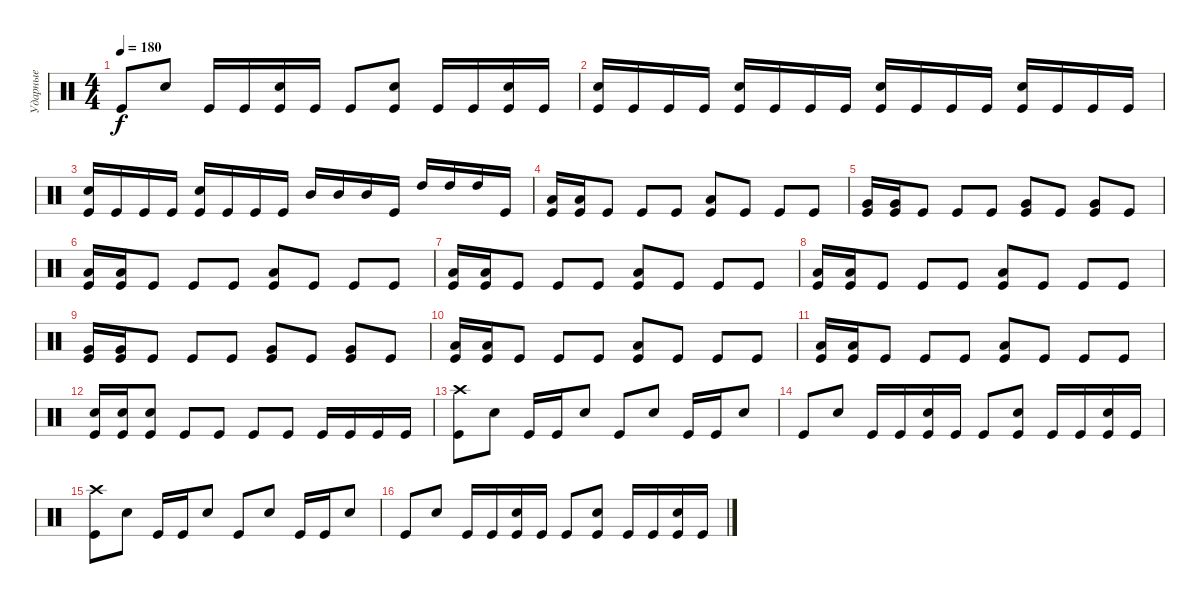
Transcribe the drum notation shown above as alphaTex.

\track ("Ударные" "Ударные") {instrument percussion}
\staff {score}
\articulation defaults
\ts (4 4)
\tempo 180
\clef neutral
\ks c "Kick (hit)".8{dy f} "Electric Snare (hit)".8 "Kick (hit)".16 "Kick (hit)".16
("Electric Snare (hit)" "Kick (hit)").16 "Kick (hit)".16 "Kick (hit)".8 ("Electric Snare (hit)" "Kick (hit)").8 "Kick (hit)".16 "Kick (hit)".16 ("Electric Snare (hit)" "Kick (hit)").16 "Kick (hit)".16 |
("Electric Snare (hit)" "Kick (hit)").16 "Kick (hit)".16 "Kick (hit)".16 "Kick (hit)".16 ("Electric Snare (hit)" "Kick (hit)").16 "Kick (hit)".16 "Kick (hit)".16 "Kick (hit)".16 ("Electric Snare (hit)" "Kick (hit)").16 "Kick (hit)".16 "Kick (hit)".16 "Kick (hit)".16 ("Electric Snare (hit)" "Kick (hit)").16 "Kick (hit)".16 "Kick (hit)".16 "Kick (hit)".16 |
("Electric Snare (hit)" "Kick (hit)").16 "Kick (hit)".16 "Kick (hit)".16 "Kick (hit)".16 ("Electric Snare (hit)" "Kick (hit)").16 "Kick (hit)".16 "Kick (hit)".16 "Kick (hit)".16 "Mid Tom (hit)".16 "Mid Tom (hit)".16 "Mid Tom (hit)".16 "Kick (hit)".16 "High Tom (hit)".16 "High Tom (hit)".16 "High Tom (hit)".16 "Kick (hit)".16 |
("Low Tom (hit)" "Kick (hit)").16 ("Low Tom (hit)" "Kick (hit)").16 "Kick (hit)".8 "Kick (hit)".8 "Kick (hit)".8 ("Low Tom (hit)" "Kick (hit)").8 "Kick (hit)".8 "Kick (hit)".8 "Kick (hit)".8 |
("Very Low Tom (hit)" "Kick (hit)").16 ("Very Low Tom (hit)" "Kick (hit)").16 "Kick (hit)".8 "Kick (hit)".8 "Kick (hit)".8 ("Very Low Tom (hit)" "Kick (hit)").8 "Kick (hit)".8 ("Very Low Tom (hit)" "Kick (hit)").8 "Kick (hit)".8 |
("Low Tom (hit)" "Kick (hit)").16 ("Low Tom (hit)" "Kick (hit)").16 "Kick (hit)".8 "Kick (hit)".8 "Kick (hit)".8 ("Low Tom (hit)" "Kick (hit)").8 "Kick (hit)".8 "Kick (hit)".8 "Kick (hit)".8 |
("Low Tom (hit)" "Kick (hit)").16 ("Low Tom (hit)" "Kick (hit)").16 "Kick (hit)".8 "Kick (hit)".8 "Kick (hit)".8 ("Low Tom (hit)" "Kick (hit)").8 "Kick (hit)".8 "Kick (hit)".8 "Kick (hit)".8 |
("Low Tom (hit)" "Kick (hit)").16 ("Low Tom (hit)" "Kick (hit)").16 "Kick (hit)".8 "Kick (hit)".8 "Kick (hit)".8 ("Low Tom (hit)" "Kick (hit)").8 "Kick (hit)".8 "Kick (hit)".8 "Kick (hit)".8 |
("Very Low Tom (hit)" "Kick (hit)").16 ("Very Low Tom (hit)" "Kick (hit)").16 "Kick (hit)".8 "Kick (hit)".8 "Kick (hit)".8 ("Very Low Tom (hit)" "Kick (hit)").8 "Kick (hit)".8 ("Very Low Tom (hit)" "Kick (hit)").8 "Kick (hit)".8 |
("Low Tom (hit)" "Kick (hit)").16 ("Low Tom (hit)" "Kick (hit)").16 "Kick (hit)".8 "Kick (hit)".8 "Kick (hit)".8 ("Low Tom (hit)" "Kick (hit)").8 "Kick (hit)".8 "Kick (hit)".8 "Kick (hit)".8 |
("Low Tom (hit)" "Kick (hit)").16 ("Low Tom (hit)" "Kick (hit)").16 "Kick (hit)".8 "Kick (hit)".8 "Kick (hit)".8 ("Low Tom (hit)" "Kick (hit)").8 "Kick (hit)".8 "Kick (hit)".8 "Kick (hit)".8 |
("Electric Snare (hit)" "Kick (hit)").16 ("Electric Snare (hit)" "Kick (hit)").16 ("Electric Snare (hit)" "Kick (hit)").8 "Kick (hit)".8 "Kick (hit)".8 "Kick (hit)".8 "Kick (hit)".8 "Kick (hit)".16 "Kick (hit)".16 "Kick (hit)".16 "Kick (hit)".16 |
("Crash high (hit)" "Kick (hit)").8 "Electric Snare (hit)".8 "Kick (hit)".16 "Kick (hit)".16 "Electric Snare (hit)".8 "Kick (hit)".8 "Electric Snare (hit)".8 "Kick (hit)".16 "Kick (hit)".16 "Electric Snare (hit)".8 |
"Kick (hit)".8 "Electric Snare (hit)".8 "Kick (hit)".16 "Kick (hit)".16 ("Electric Snare (hit)" "Kick (hit)").16 "Kick (hit)".16 "Kick (hit)".8 ("Electric Snare (hit)" "Kick (hit)").8 "Kick (hit)".16 "Kick (hit)".16 ("Electric Snare (hit)" "Kick (hit)").16 "Kick (hit)".16 |
("Crash high (hit)" "Kick (hit)").8 "Electric Snare (hit)".8 "Kick (hit)".16 "Kick (hit)".16 "Electric Snare (hit)".8 "Kick (hit)".8 "Electric Snare (hit)".8 "Kick (hit)".16 "Kick (hit)".16 "Electric Snare (hit)".8 |
"Kick (hit)".8 "Electric Snare (hit)".8 "Kick (hit)".16 "Kick (hit)".16 ("Electric Snare (hit)" "Kick (hit)").16 "Kick (hit)".16 "Kick (hit)".8 ("Electric Snare (hit)" "Kick (hit)").8 "Kick (hit)".16 "Kick (hit)".16 ("Electric Snare (hit)" "Kick (hit)").16 "Kick (hit)".16
